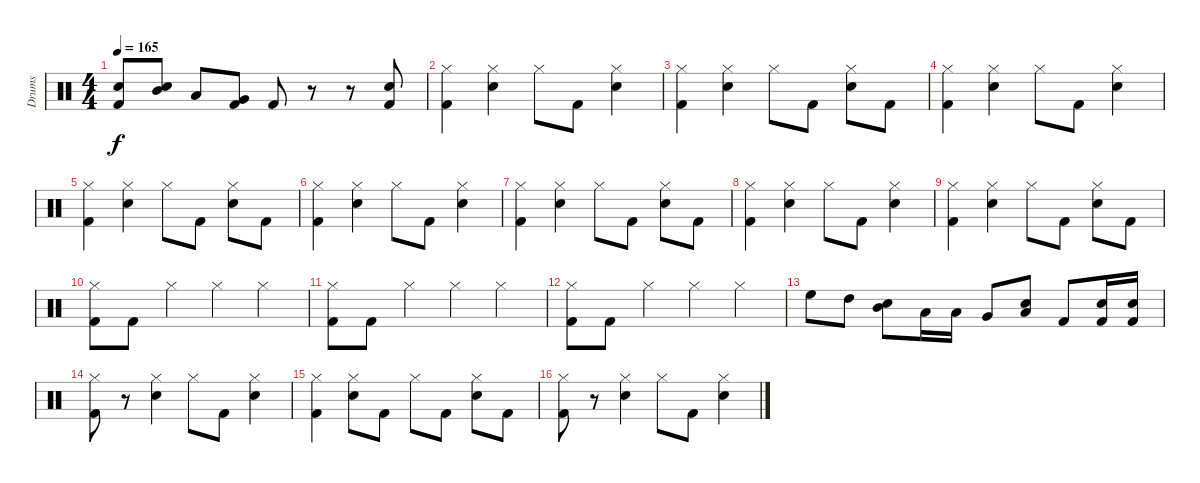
\track ("Drums" "Drums") {instrument percussion}
\staff {score}
\articulation defaults
\ts (4 4)
\tempo 165
\clef neutral
\ks c
("Snare (hit) 2" "Kick (hit) 2").8{dy f} ("Snare (hit) 2" "Mid Tom (hit)").8 "Low Tom (hit)".8 ("Very Low Tom (hit)" "Kick (hit) 2").8 "Kick (hit) 2".8 r.8 r.8 ("Snare (hit) 2" "Kick (hit) 2").8 |
("Hi-Hat (closed)" "Kick (hit) 2").4 ("Hi-Hat (closed)" "Snare (hit) 2").4 "Hi-Hat (closed)".8 "Kick (hit) 2".8 ("Hi-Hat (closed)" "Snare (hit) 2").4 |
("Hi-Hat (closed)" "Kick (hit) 2").4 ("Hi-Hat (closed)" "Snare (hit) 2").4 "Hi-Hat (closed)".8 "Kick (hit) 2".8 ("Hi-Hat (closed)" "Snare (hit) 2").8 "Kick (hit) 2".8 |
("Hi-Hat (closed)" "Kick (hit) 2").4 ("Hi-Hat (closed)" "Snare (hit) 2").4 "Hi-Hat (closed)".8 "Kick (hit) 2".8 ("Hi-Hat (closed)" "Snare (hit) 2").4 |
("Hi-Hat (closed)" "Kick (hit) 2").4 ("Hi-Hat (closed)" "Snare (hit) 2").4 "Hi-Hat (closed)".8 "Kick (hit) 2".8 ("Hi-Hat (closed)" "Snare (hit) 2").8 "Kick (hit) 2".8 |
("Hi-Hat (closed)" "Kick (hit) 2").4 ("Hi-Hat (closed)" "Snare (hit) 2").4 "Hi-Hat (closed)".8 "Kick (hit) 2".8 ("Hi-Hat (closed)" "Snare (hit) 2").4 |
("Hi-Hat (closed)" "Kick (hit) 2").4 ("Hi-Hat (closed)" "Snare (hit) 2").4 "Hi-Hat (closed)".8 "Kick (hit) 2".8 ("Hi-Hat (closed)" "Snare (hit) 2").8 "Kick (hit) 2".8 |
("Hi-Hat (closed)" "Kick (hit) 2").4 ("Hi-Hat (closed)" "Snare (hit) 2").4 "Hi-Hat (closed)".8 "Kick (hit) 2".8 ("Hi-Hat (closed)" "Snare (hit) 2").4 |
("Hi-Hat (closed)" "Kick (hit) 2").4 ("Hi-Hat (closed)" "Snare (hit) 2").4 "Hi-Hat (closed)".8 "Kick (hit) 2".8 ("Hi-Hat (closed)" "Snare (hit) 2").8 "Kick (hit) 2".8 |
("Hi-Hat (closed)" "Kick (hit) 2").8 "Kick (hit) 2".8 "Hi-Hat (closed)".4 "Hi-Hat (closed)".4 "Hi-Hat (closed)".4 |
("Hi-Hat (closed)" "Kick (hit) 2").8 "Kick (hit) 2".8 "Hi-Hat (closed)".4 "Hi-Hat (closed)".4 "Hi-Hat (closed)".4 |
("Hi-Hat (closed)" "Kick (hit) 2").8 "Kick (hit) 2".8 "Hi-Hat (closed)".4 "Hi-Hat (closed)".4 "Hi-Hat (closed)".4 |
"High Floor Tom (hit)".8 "High Tom (hit)".8 ("Mid Tom (hit)" "Snare (hit) 2").8 "Low Tom (hit)".16 "Low Tom (hit)".16 "Very Low Tom (hit)".8 ("Low Floor Tom (hit)" "Snare (hit) 2").8 "Kick (hit) 2".8 ("Kick (hit) 2" "Snare (hit) 2").16 ("Kick (hit) 2" "Snare (hit) 2").16 |
("Hi-Hat (closed)" "Kick (hit) 2").8 r.8 ("Hi-Hat (closed)" "Snare (hit) 2").4 "Hi-Hat (closed)".8 "Kick (hit) 2".8 ("Hi-Hat (closed)" "Snare (hit) 2").4 |
("Hi-Hat (closed)" "Kick (hit) 2").4 ("Hi-Hat (closed)" "Snare (hit) 2").8 "Kick (hit) 2".8 "Hi-Hat (closed)".8 "Kick (hit) 2".8 ("Hi-Hat (closed)" "Snare (hit) 2").8 "Kick (hit) 2".8 |
("Hi-Hat (closed)" "Kick (hit) 2").8 r.8 ("Hi-Hat (closed)" "Snare (hit) 2").4 "Hi-Hat (closed)".8 "Kick (hit) 2".8 ("Hi-Hat (closed)" "Snare (hit) 2").4
